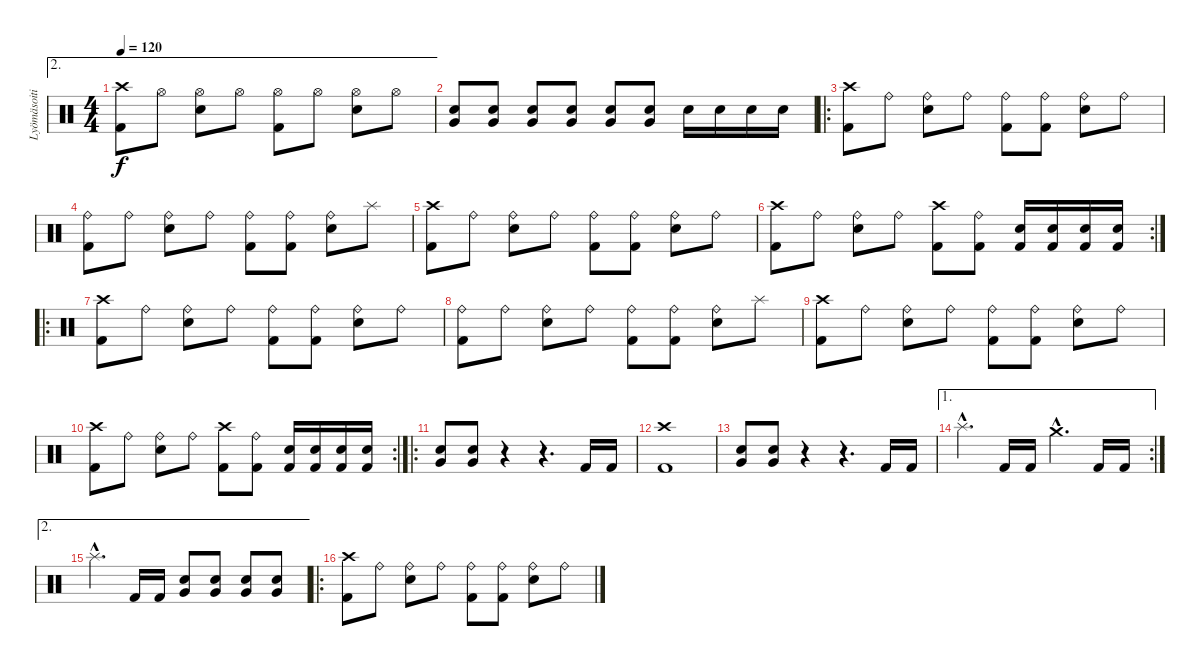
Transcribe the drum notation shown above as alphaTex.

\track ("Lyömäsoitin" "Lyömäsoiti") {instrument percussion}
\staff {score}
\articulation defaults
\ae 2
\ts (4 4)
\tempo 120
\clef neutral
\ks c
("Crash high (hit)" "Kick (hit) 2").8{dy f} "Hi-Hat (open)".8 ("Hi-Hat (open)" "Snare (hit) 2").8 "Hi-Hat (open)".8 ("Hi-Hat (open)" "Kick (hit) 2").8 "Hi-Hat (open)".8 ("Hi-Hat (open)" "Snare (hit) 2").8 "Hi-Hat (open)".8 |
("Very Low Tom (hit)" "Snare (hit) 2").8 ("Very Low Tom (hit)" "Snare (hit) 2").8 ("Very Low Tom (hit)" "Snare (hit) 2").8 ("Very Low Tom (hit)" "Snare (hit) 2").8 ("Very Low Tom (hit)" "Snare (hit) 2").8 ("Very Low Tom (hit)" "Snare (hit) 2").8 "Snare (hit) 2".16 "Snare (hit) 2".16 "Snare (hit) 2".16 "Snare (hit) 2".16 |
\ro
("Crash high (hit)" "Kick (hit) 2").8 "Ride (bell)".8 ("Ride (bell)" "Snare (hit) 2").8 "Ride (bell)".8 ("Ride (bell)" "Kick (hit) 2").8 ("Ride (bell)" "Kick (hit) 2").8 ("Ride (bell)" "Snare (hit) 2").8 "Ride (bell)".8 |
("Ride (bell)" "Kick (hit) 2").8 "Ride (bell)".8 ("Ride (bell)" "Snare (hit) 2").8 "Ride (bell)".8 ("Ride (bell)" "Kick (hit) 2").8 ("Ride (bell)" "Kick (hit) 2").8 ("Ride (bell)" "Snare (hit) 2").8 "Splash (hit)".8 |
("Crash high (hit)" "Kick (hit) 2").8 "Ride (bell)".8 ("Ride (bell)" "Snare (hit) 2").8 "Ride (bell)".8 ("Ride (bell)" "Kick (hit) 2").8 ("Ride (bell)" "Kick (hit) 2").8 ("Ride (bell)" "Snare (hit) 2").8 "Ride (bell)".8 |
\rc 2
("Crash high (hit)" "Kick (hit) 2").8 "Ride (bell)".8 ("Ride (bell)" "Snare (hit) 2").8 "Ride (bell)".8 ("Crash high (hit)" "Kick (hit) 2").8 ("Ride (bell)" "Kick (hit) 2").8 ("Snare (hit) 2" "Kick (hit) 2").16 ("Snare (hit) 2" "Kick (hit) 2").16 ("Snare (hit) 2" "Kick (hit) 2").16 ("Snare (hit) 2" "Kick (hit) 2").16 |
\ro
("Crash high (hit)" "Kick (hit) 2").8 "Ride (bell)".8 ("Ride (bell)" "Snare (hit) 2").8 "Ride (bell)".8 ("Ride (bell)" "Kick (hit) 2").8 ("Ride (bell)" "Kick (hit) 2").8 ("Ride (bell)" "Snare (hit) 2").8 "Ride (bell)".8 |
("Ride (bell)" "Kick (hit) 2").8 "Ride (bell)".8 ("Ride (bell)" "Snare (hit) 2").8 "Ride (bell)".8 ("Ride (bell)" "Kick (hit) 2").8 ("Ride (bell)" "Kick (hit) 2").8 ("Ride (bell)" "Snare (hit) 2").8 "Splash (hit)".8 |
("Crash high (hit)" "Kick (hit) 2").8 "Ride (bell)".8 ("Ride (bell)" "Snare (hit) 2").8 "Ride (bell)".8 ("Ride (bell)" "Kick (hit) 2").8 ("Ride (bell)" "Kick (hit) 2").8 ("Ride (bell)" "Snare (hit) 2").8 "Ride (bell)".8 |
\rc 2
("Crash high (hit)" "Kick (hit) 2").8 "Ride (bell)".8 ("Ride (bell)" "Snare (hit) 2").8 "Ride (bell)".8 ("Crash high (hit)" "Kick (hit) 2").8 ("Ride (bell)" "Kick (hit) 2").8 ("Snare (hit) 2" "Kick (hit) 2").16 ("Snare (hit) 2" "Kick (hit) 2").16 ("Snare (hit) 2" "Kick (hit) 2").16 ("Snare (hit) 2" "Kick (hit) 2").16 |
\ro
("Very Low Tom (hit)" "Snare (hit) 2").8 ("Very Low Tom (hit)" "Snare (hit) 2").8 r.4 r.4{d} "Kick (hit) 2".16 "Kick (hit) 2".16 |
("Crash high (hit)" "Kick (hit) 2").1 |
("Very Low Tom (hit)" "Snare (hit) 2").8 ("Very Low Tom (hit)" "Snare (hit) 2").8 r.4 r.4{d} "Kick (hit) 2".16 "Kick (hit) 2".16 |
\ae 1
\rc 2 "Splash (hit)"{hac}.4{d} "Kick (hit) 2".16 "Kick (hit) 2".16 "Crash medium (hit)"{hac}.4{d} "Kick (hit) 2".16 "Kick (hit) 2".16
|
\ae 2 "Splash (hit)"{hac}.4{d} "Kick (hit) 2".16 "Kick (hit) 2".16
("Very Low Tom (hit)" "Snare (hit) 2").8 ("Very Low Tom (hit)" "Snare (hit) 2").8 ("Very Low Tom (hit)" "Snare (hit) 2").8 ("Very Low Tom (hit)" "Snare (hit) 2").8 |
\ro
("Crash high (hit)" "Kick (hit) 2").8 "Ride (bell)".8 ("Ride (bell)" "Snare (hit) 2").8 "Ride (bell)".8 ("Ride (bell)" "Kick (hit) 2").8 ("Ride (bell)" "Kick (hit) 2").8 ("Ride (bell)" "Snare (hit) 2").8 "Ride (bell)".8
